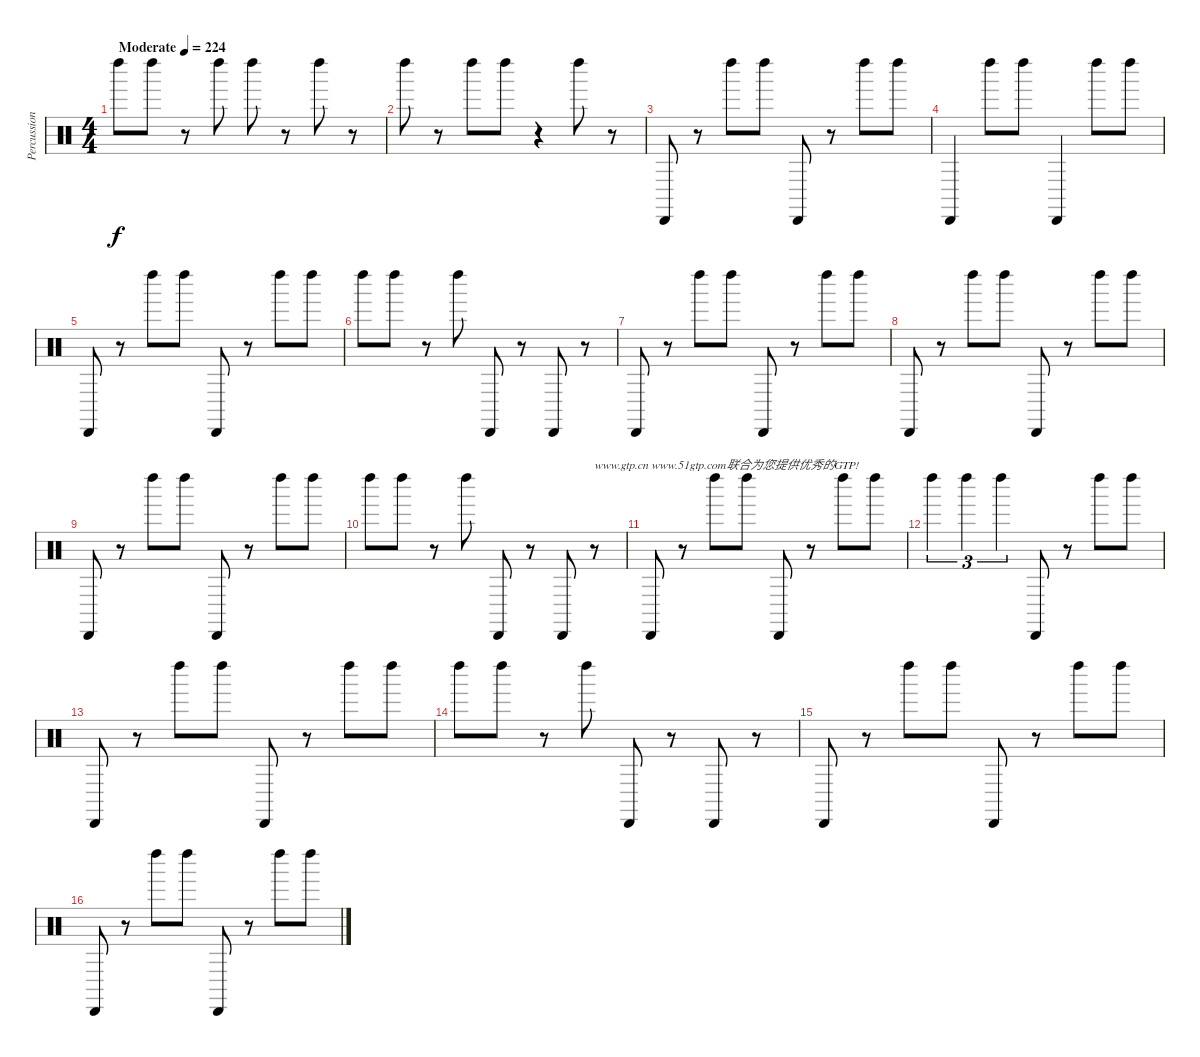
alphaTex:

\track ("Percussion" "Percussion") {solo instrument percussion}
\staff {score}
\articulation defaults
\ts (4 4)
\tempo (224 "Moderate")
\clef neutral
\ks c "Left Maraca (hit)".8{dy f} "Left Maraca (hit)".8
r.8 "Left Maraca (hit)".8 "Left Maraca (hit)".8 r.8 "Left Maraca (hit)".8 r.8 |
"Left Maraca (hit)".8 r.8 "Left Maraca (hit)".8 "Left Maraca (hit)".8 r.4 "Left Maraca (hit)".8 r.8 |
"Cabasa (hit)".8 r.8 "Left Maraca (hit)".8 "Left Maraca (hit)".8 "Cabasa (hit)".8 r.8 "Left Maraca (hit)".8 "Left Maraca (hit)".8 |
"Cabasa (hit)".4 "Left Maraca (hit)".8 "Left Maraca (hit)".8 "Cabasa (hit)".4 "Left Maraca (hit)".8 "Left Maraca (hit)".8 |
"Cabasa (hit)".8 r.8 "Left Maraca (hit)".8 "Left Maraca (hit)".8 "Cabasa (hit)".8 r.8 "Left Maraca (hit)".8 "Left Maraca (hit)".8 |
"Left Maraca (hit)".8 "Left Maraca (hit)".8 r.8 "Left Maraca (hit)".8 "Cabasa (hit)".8 r.8 "Cabasa (hit)".8 r.8 |
"Cabasa (hit)".8 r.8 "Left Maraca (hit)".8 "Left Maraca (hit)".8 "Cabasa (hit)".8 r.8 "Left Maraca (hit)".8 "Left Maraca (hit)".8 |
"Cabasa (hit)".8 r.8 "Left Maraca (hit)".8 "Left Maraca (hit)".8 "Cabasa (hit)".8 r.8 "Left Maraca (hit)".8 "Left Maraca (hit)".8 |
"Cabasa (hit)".8 r.8 "Left Maraca (hit)".8 "Left Maraca (hit)".8 "Cabasa (hit)".8 r.8 "Left Maraca (hit)".8 "Left Maraca (hit)".8 |
"Left Maraca (hit)".8 "Left Maraca (hit)".8 r.8 "Left Maraca (hit)".8 "Cabasa (hit)".8 r.8 "Cabasa (hit)".8 r.8{txt "www.gtp.cn www.51gtp.com联合为您提供优秀的GTP!"} |
"Cabasa (hit)".8 r.8 "Left Maraca (hit)".8 "Left Maraca (hit)".8 "Cabasa (hit)".8 r.8 "Left Maraca (hit)".8 "Left Maraca (hit)".8 |
"Left Maraca (hit)".4{tu (3 2)} "Left Maraca (hit)".4{tu (3 2)} "Left Maraca (hit)".4{tu (3 2)} "Cabasa (hit)".8 r.8 "Left Maraca (hit)".8 "Left Maraca (hit)".8 |
"Cabasa (hit)".8 r.8 "Left Maraca (hit)".8 "Left Maraca (hit)".8 "Cabasa (hit)".8 r.8 "Left Maraca (hit)".8 "Left Maraca (hit)".8 |
"Left Maraca (hit)".8 "Left Maraca (hit)".8 r.8 "Left Maraca (hit)".8 "Cabasa (hit)".8 r.8 "Cabasa (hit)".8 r.8 |
"Cabasa (hit)".8 r.8 "Left Maraca (hit)".8 "Left Maraca (hit)".8 "Cabasa (hit)".8 r.8 "Left Maraca (hit)".8 "Left Maraca (hit)".8 |
"Cabasa (hit)".8 r.8 "Left Maraca (hit)".8 "Left Maraca (hit)".8 "Cabasa (hit)".8 r.8 "Left Maraca (hit)".8 "Left Maraca (hit)".8
